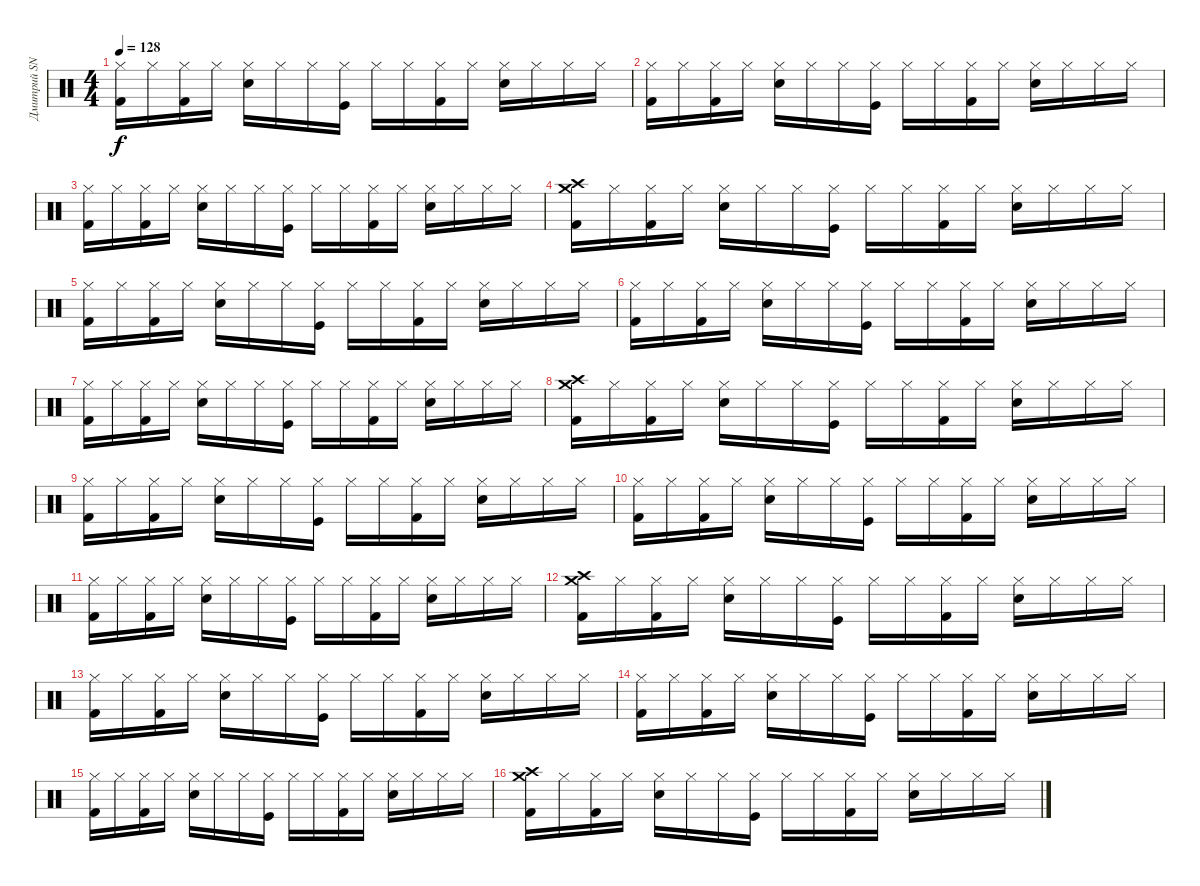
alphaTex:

\track ("Дмитрий SNAKE Хакимов (ударные)" "Дмитрий SN") {instrument percussion}
\staff {score}
\articulation defaults
\ts (4 4)
\tempo 128
\clef neutral
\ks c
("Hi-Hat (closed)" "Kick (hit) 2").16{dy f} "Hi-Hat (closed)".16 ("Hi-Hat (closed)" "Kick (hit) 2").16 "Hi-Hat (closed)".16 ("Hi-Hat (closed)" "Snare (hit) 2").16 "Hi-Hat (closed)".16 "Hi-Hat (closed)".16 ("Hi-Hat (closed)" "Kick (hit)").16 "Hi-Hat (closed)".16 "Hi-Hat (closed)".16 ("Hi-Hat (closed)" "Kick (hit) 2").16 "Hi-Hat (closed)".16 ("Hi-Hat (closed)" "Snare (hit) 2").16 "Hi-Hat (closed)".16 "Hi-Hat (closed)".16 "Hi-Hat (closed)".16 |
("Hi-Hat (closed)" "Kick (hit) 2").16 "Hi-Hat (closed)".16 ("Hi-Hat (closed)" "Kick (hit) 2").16 "Hi-Hat (closed)".16 ("Hi-Hat (closed)" "Snare (hit) 2").16 "Hi-Hat (closed)".16 "Hi-Hat (closed)".16 ("Hi-Hat (closed)" "Kick (hit)").16 "Hi-Hat (closed)".16 "Hi-Hat (closed)".16 ("Hi-Hat (closed)" "Kick (hit) 2").16 "Hi-Hat (closed)".16 ("Hi-Hat (closed)" "Snare (hit) 2").16 "Hi-Hat (closed)".16 "Hi-Hat (closed)".16 "Hi-Hat (closed)".16 |
("Hi-Hat (closed)" "Kick (hit) 2").16 "Hi-Hat (closed)".16 ("Hi-Hat (closed)" "Kick (hit) 2").16 "Hi-Hat (closed)".16 ("Hi-Hat (closed)" "Snare (hit) 2").16 "Hi-Hat (closed)".16 "Hi-Hat (closed)".16 ("Hi-Hat (closed)" "Kick (hit)").16 "Hi-Hat (closed)".16 "Hi-Hat (closed)".16 ("Hi-Hat (closed)" "Kick (hit) 2").16 "Hi-Hat (closed)".16 ("Hi-Hat (closed)" "Snare (hit) 2").16 "Hi-Hat (closed)".16 "Hi-Hat (closed)".16 "Hi-Hat (closed)".16 |
("Crash high (hit)" "Crash medium (hit)" "Kick (hit) 2").16 "Hi-Hat (closed)".16 ("Hi-Hat (closed)" "Kick (hit) 2").16 "Hi-Hat (closed)".16 ("Hi-Hat (closed)" "Snare (hit) 2").16 "Hi-Hat (closed)".16 "Hi-Hat (closed)".16 ("Hi-Hat (closed)" "Kick (hit)").16 "Hi-Hat (closed)".16 "Hi-Hat (closed)".16 ("Hi-Hat (closed)" "Kick (hit) 2").16 "Hi-Hat (closed)".16 ("Hi-Hat (closed)" "Snare (hit) 2").16 "Hi-Hat (closed)".16 "Hi-Hat (closed)".16 "Hi-Hat (closed)".16 |
("Hi-Hat (closed)" "Kick (hit) 2").16 "Hi-Hat (closed)".16 ("Hi-Hat (closed)" "Kick (hit) 2").16 "Hi-Hat (closed)".16 ("Hi-Hat (closed)" "Snare (hit) 2").16 "Hi-Hat (closed)".16 "Hi-Hat (closed)".16 ("Hi-Hat (closed)" "Kick (hit)").16 "Hi-Hat (closed)".16 "Hi-Hat (closed)".16 ("Hi-Hat (closed)" "Kick (hit) 2").16 "Hi-Hat (closed)".16 ("Hi-Hat (closed)" "Snare (hit) 2").16 "Hi-Hat (closed)".16 "Hi-Hat (closed)".16 "Hi-Hat (closed)".16 |
("Hi-Hat (closed)" "Kick (hit) 2").16 "Hi-Hat (closed)".16 ("Hi-Hat (closed)" "Kick (hit) 2").16 "Hi-Hat (closed)".16 ("Hi-Hat (closed)" "Snare (hit) 2").16 "Hi-Hat (closed)".16 "Hi-Hat (closed)".16 ("Hi-Hat (closed)" "Kick (hit)").16 "Hi-Hat (closed)".16 "Hi-Hat (closed)".16 ("Hi-Hat (closed)" "Kick (hit) 2").16 "Hi-Hat (closed)".16 ("Hi-Hat (closed)" "Snare (hit) 2").16 "Hi-Hat (closed)".16 "Hi-Hat (closed)".16 "Hi-Hat (closed)".16 |
("Hi-Hat (closed)" "Kick (hit) 2").16 "Hi-Hat (closed)".16 ("Hi-Hat (closed)" "Kick (hit) 2").16 "Hi-Hat (closed)".16 ("Hi-Hat (closed)" "Snare (hit) 2").16 "Hi-Hat (closed)".16 "Hi-Hat (closed)".16 ("Hi-Hat (closed)" "Kick (hit)").16 "Hi-Hat (closed)".16 "Hi-Hat (closed)".16 ("Hi-Hat (closed)" "Kick (hit) 2").16 "Hi-Hat (closed)".16 ("Hi-Hat (closed)" "Snare (hit) 2").16 "Hi-Hat (closed)".16 "Hi-Hat (closed)".16 "Hi-Hat (closed)".16 |
("Crash high (hit)" "Crash medium (hit)" "Kick (hit) 2").16 "Hi-Hat (closed)".16 ("Hi-Hat (closed)" "Kick (hit) 2").16 "Hi-Hat (closed)".16 ("Hi-Hat (closed)" "Snare (hit) 2").16 "Hi-Hat (closed)".16 "Hi-Hat (closed)".16 ("Hi-Hat (closed)" "Kick (hit)").16 "Hi-Hat (closed)".16 "Hi-Hat (closed)".16 ("Hi-Hat (closed)" "Kick (hit) 2").16 "Hi-Hat (closed)".16 ("Hi-Hat (closed)" "Snare (hit) 2").16 "Hi-Hat (closed)".16 "Hi-Hat (closed)".16 "Hi-Hat (closed)".16 |
("Hi-Hat (closed)" "Kick (hit) 2").16 "Hi-Hat (closed)".16 ("Hi-Hat (closed)" "Kick (hit) 2").16 "Hi-Hat (closed)".16 ("Hi-Hat (closed)" "Snare (hit) 2").16 "Hi-Hat (closed)".16 "Hi-Hat (closed)".16 ("Hi-Hat (closed)" "Kick (hit)").16 "Hi-Hat (closed)".16 "Hi-Hat (closed)".16 ("Hi-Hat (closed)" "Kick (hit) 2").16 "Hi-Hat (closed)".16 ("Hi-Hat (closed)" "Snare (hit) 2").16 "Hi-Hat (closed)".16 "Hi-Hat (closed)".16 "Hi-Hat (closed)".16 |
("Hi-Hat (closed)" "Kick (hit) 2").16 "Hi-Hat (closed)".16 ("Hi-Hat (closed)" "Kick (hit) 2").16 "Hi-Hat (closed)".16 ("Hi-Hat (closed)" "Snare (hit) 2").16 "Hi-Hat (closed)".16 "Hi-Hat (closed)".16 ("Hi-Hat (closed)" "Kick (hit)").16 "Hi-Hat (closed)".16 "Hi-Hat (closed)".16 ("Hi-Hat (closed)" "Kick (hit) 2").16 "Hi-Hat (closed)".16 ("Hi-Hat (closed)" "Snare (hit) 2").16 "Hi-Hat (closed)".16 "Hi-Hat (closed)".16 "Hi-Hat (closed)".16 |
("Hi-Hat (closed)" "Kick (hit) 2").16 "Hi-Hat (closed)".16 ("Hi-Hat (closed)" "Kick (hit) 2").16 "Hi-Hat (closed)".16 ("Hi-Hat (closed)" "Snare (hit) 2").16 "Hi-Hat (closed)".16 "Hi-Hat (closed)".16 ("Hi-Hat (closed)" "Kick (hit)").16 "Hi-Hat (closed)".16 "Hi-Hat (closed)".16 ("Hi-Hat (closed)" "Kick (hit) 2").16 "Hi-Hat (closed)".16 ("Hi-Hat (closed)" "Snare (hit) 2").16 "Hi-Hat (closed)".16 "Hi-Hat (closed)".16 "Hi-Hat (closed)".16 |
("Crash high (hit)" "Crash medium (hit)" "Kick (hit) 2").16 "Hi-Hat (closed)".16 ("Hi-Hat (closed)" "Kick (hit) 2").16 "Hi-Hat (closed)".16 ("Hi-Hat (closed)" "Snare (hit) 2").16 "Hi-Hat (closed)".16 "Hi-Hat (closed)".16 ("Hi-Hat (closed)" "Kick (hit)").16 "Hi-Hat (closed)".16 "Hi-Hat (closed)".16 ("Hi-Hat (closed)" "Kick (hit) 2").16 "Hi-Hat (closed)".16 ("Hi-Hat (closed)" "Snare (hit) 2").16 "Hi-Hat (closed)".16 "Hi-Hat (closed)".16 "Hi-Hat (closed)".16 |
("Hi-Hat (closed)" "Kick (hit) 2").16 "Hi-Hat (closed)".16 ("Hi-Hat (closed)" "Kick (hit) 2").16 "Hi-Hat (closed)".16 ("Hi-Hat (closed)" "Snare (hit) 2").16 "Hi-Hat (closed)".16 "Hi-Hat (closed)".16 ("Hi-Hat (closed)" "Kick (hit)").16 "Hi-Hat (closed)".16 "Hi-Hat (closed)".16 ("Hi-Hat (closed)" "Kick (hit) 2").16 "Hi-Hat (closed)".16 ("Hi-Hat (closed)" "Snare (hit) 2").16 "Hi-Hat (closed)".16 "Hi-Hat (closed)".16 "Hi-Hat (closed)".16 |
("Hi-Hat (closed)" "Kick (hit) 2").16 "Hi-Hat (closed)".16 ("Hi-Hat (closed)" "Kick (hit) 2").16 "Hi-Hat (closed)".16 ("Hi-Hat (closed)" "Snare (hit) 2").16 "Hi-Hat (closed)".16 "Hi-Hat (closed)".16 ("Hi-Hat (closed)" "Kick (hit)").16 "Hi-Hat (closed)".16 "Hi-Hat (closed)".16 ("Hi-Hat (closed)" "Kick (hit) 2").16 "Hi-Hat (closed)".16 ("Hi-Hat (closed)" "Snare (hit) 2").16 "Hi-Hat (closed)".16 "Hi-Hat (closed)".16 "Hi-Hat (closed)".16 |
("Hi-Hat (closed)" "Kick (hit) 2").16 "Hi-Hat (closed)".16 ("Hi-Hat (closed)" "Kick (hit) 2").16 "Hi-Hat (closed)".16 ("Hi-Hat (closed)" "Snare (hit) 2").16 "Hi-Hat (closed)".16 "Hi-Hat (closed)".16 ("Hi-Hat (closed)" "Kick (hit)").16 "Hi-Hat (closed)".16 "Hi-Hat (closed)".16 ("Hi-Hat (closed)" "Kick (hit) 2").16 "Hi-Hat (closed)".16 ("Hi-Hat (closed)" "Snare (hit) 2").16 "Hi-Hat (closed)".16 "Hi-Hat (closed)".16 "Hi-Hat (closed)".16 |
("Crash high (hit)" "Crash medium (hit)" "Kick (hit) 2").16 "Hi-Hat (closed)".16 ("Hi-Hat (closed)" "Kick (hit) 2").16 "Hi-Hat (closed)".16 ("Hi-Hat (closed)" "Snare (hit) 2").16 "Hi-Hat (closed)".16 "Hi-Hat (closed)".16 ("Hi-Hat (closed)" "Kick (hit)").16 "Hi-Hat (closed)".16 "Hi-Hat (closed)".16 ("Hi-Hat (closed)" "Kick (hit) 2").16 "Hi-Hat (closed)".16 ("Hi-Hat (closed)" "Snare (hit) 2").16 "Hi-Hat (closed)".16 "Hi-Hat (closed)".16 "Hi-Hat (closed)".16
